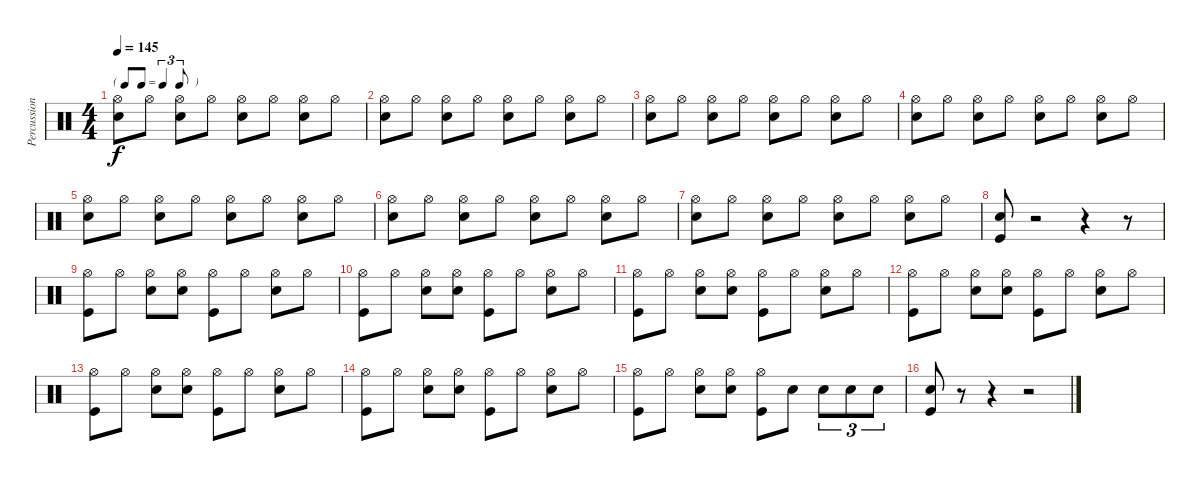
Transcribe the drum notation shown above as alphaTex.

\track ("Percussion" "Percussion") {instrument percussion}
\staff {score}
\articulation defaults
\ts (4 4)
\tf triplet8th
\tempo 145
\clef neutral
\ks c
("Hi-Hat (open)" "Snare (hit) 2").8{dy f} "Hi-Hat (open)".8 ("Hi-Hat (open)" "Snare (hit) 2").8 "Hi-Hat (open)".8 ("Hi-Hat (open)" "Snare (hit) 2").8 "Hi-Hat (open)".8 ("Hi-Hat (open)" "Snare (hit) 2").8 "Hi-Hat (open)".8 |
("Hi-Hat (open)" "Snare (hit) 2").8 "Hi-Hat (open)".8 ("Hi-Hat (open)" "Snare (hit) 2").8 "Hi-Hat (open)".8 ("Hi-Hat (open)" "Snare (hit) 2").8 "Hi-Hat (open)".8 ("Hi-Hat (open)" "Snare (hit) 2").8 "Hi-Hat (open)".8 |
("Hi-Hat (open)" "Snare (hit) 2").8 "Hi-Hat (open)".8 ("Hi-Hat (open)" "Snare (hit) 2").8 "Hi-Hat (open)".8 ("Hi-Hat (open)" "Snare (hit) 2").8 "Hi-Hat (open)".8 ("Hi-Hat (open)" "Snare (hit) 2").8 "Hi-Hat (open)".8 |
("Hi-Hat (open)" "Snare (hit) 2").8 "Hi-Hat (open)".8 ("Hi-Hat (open)" "Snare (hit) 2").8 "Hi-Hat (open)".8 ("Hi-Hat (open)" "Snare (hit) 2").8 "Hi-Hat (open)".8 ("Hi-Hat (open)" "Snare (hit) 2").8 "Hi-Hat (open)".8 |
("Hi-Hat (open)" "Snare (hit) 2").8 "Hi-Hat (open)".8 ("Hi-Hat (open)" "Snare (hit) 2").8 "Hi-Hat (open)".8 ("Hi-Hat (open)" "Snare (hit) 2").8 "Hi-Hat (open)".8 ("Hi-Hat (open)" "Snare (hit) 2").8 "Hi-Hat (open)".8 |
("Hi-Hat (open)" "Snare (hit) 2").8 "Hi-Hat (open)".8 ("Hi-Hat (open)" "Snare (hit) 2").8 "Hi-Hat (open)".8 ("Hi-Hat (open)" "Snare (hit) 2").8 "Hi-Hat (open)".8 ("Hi-Hat (open)" "Snare (hit) 2").8 "Hi-Hat (open)".8 |
("Hi-Hat (open)" "Snare (hit) 2").8 "Hi-Hat (open)".8 ("Hi-Hat (open)" "Snare (hit) 2").8 "Hi-Hat (open)".8 ("Hi-Hat (open)" "Snare (hit) 2").8 "Hi-Hat (open)".8 ("Hi-Hat (open)" "Snare (hit) 2").8 "Hi-Hat (open)".8 |
("Snare (hit) 2" "Kick (hit)").8 r.2 r.4 r.8 |
("Hi-Hat (open)" "Kick (hit)").8 "Hi-Hat (open)".8 ("Hi-Hat (open)" "Snare (hit) 2").8 ("Hi-Hat (open)" "Snare (hit) 2").8 ("Hi-Hat (open)" "Kick (hit)").8 "Hi-Hat (open)".8 ("Hi-Hat (open)" "Snare (hit) 2").8 "Hi-Hat (open)".8 |
("Hi-Hat (open)" "Kick (hit)").8 "Hi-Hat (open)".8 ("Hi-Hat (open)" "Snare (hit) 2").8 ("Hi-Hat (open)" "Snare (hit) 2").8 ("Hi-Hat (open)" "Kick (hit)").8 "Hi-Hat (open)".8 ("Hi-Hat (open)" "Snare (hit) 2").8 "Hi-Hat (open)".8 |
("Hi-Hat (open)" "Kick (hit)").8 "Hi-Hat (open)".8 ("Hi-Hat (open)" "Snare (hit) 2").8 ("Hi-Hat (open)" "Snare (hit) 2").8 ("Hi-Hat (open)" "Kick (hit)").8 "Hi-Hat (open)".8 ("Hi-Hat (open)" "Snare (hit) 2").8 "Hi-Hat (open)".8 |
("Hi-Hat (open)" "Kick (hit)").8 "Hi-Hat (open)".8 ("Hi-Hat (open)" "Snare (hit) 2").8 ("Hi-Hat (open)" "Snare (hit) 2").8 ("Hi-Hat (open)" "Kick (hit)").8 "Hi-Hat (open)".8 ("Hi-Hat (open)" "Snare (hit) 2").8 "Hi-Hat (open)".8 |
("Hi-Hat (open)" "Kick (hit)").8 "Hi-Hat (open)".8 ("Hi-Hat (open)" "Snare (hit) 2").8 ("Hi-Hat (open)" "Snare (hit) 2").8 ("Hi-Hat (open)" "Kick (hit)").8 "Hi-Hat (open)".8 ("Hi-Hat (open)" "Snare (hit) 2").8 "Hi-Hat (open)".8 |
("Hi-Hat (open)" "Kick (hit)").8 "Hi-Hat (open)".8 ("Hi-Hat (open)" "Snare (hit) 2").8 ("Hi-Hat (open)" "Snare (hit) 2").8 ("Hi-Hat (open)" "Kick (hit)").8 "Hi-Hat (open)".8 ("Hi-Hat (open)" "Snare (hit) 2").8 "Hi-Hat (open)".8 |
("Hi-Hat (open)" "Kick (hit)").8 "Hi-Hat (open)".8 ("Hi-Hat (open)" "Snare (hit) 2").8 ("Hi-Hat (open)" "Snare (hit) 2").8 ("Hi-Hat (open)" "Kick (hit)").8 "Snare (hit) 2".8 "Snare (hit) 2".8{tu (3 2)} "Snare (hit) 2".8{tu (3 2)} "Snare (hit) 2".8{tu (3 2)} |
("Snare (hit) 2" "Kick (hit)").8 r.8 r.4 r.2
